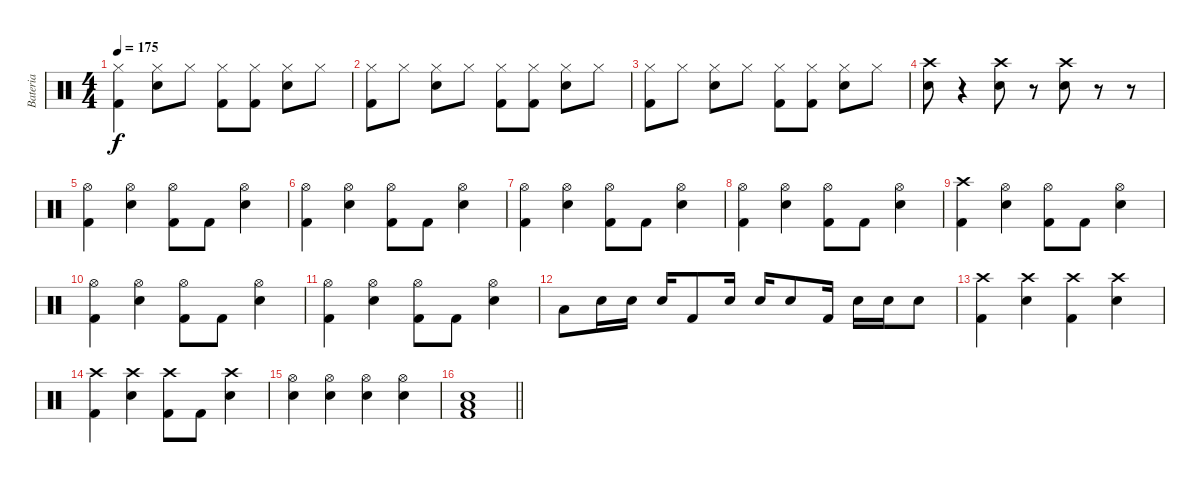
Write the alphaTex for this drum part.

\track ("Bateria" "Bateria") {instrument percussion}
\staff {score}
\articulation defaults
\ts (4 4)
\tempo 175
\clef neutral
\ks c
("Hi-Hat (closed)" "Kick (hit) 2").4{dy f} ("Hi-Hat (closed)" "Electric Snare (hit)").8 "Hi-Hat (closed)".8 ("Hi-Hat (closed)" "Kick (hit) 2").8 ("Hi-Hat (closed)" "Kick (hit) 2").8 ("Hi-Hat (closed)" "Electric Snare (hit)").8 "Hi-Hat (closed)".8 |
("Hi-Hat (closed)" "Kick (hit) 2").8 "Hi-Hat (closed)".8 ("Hi-Hat (closed)" "Electric Snare (hit)").8 "Hi-Hat (closed)".8 ("Hi-Hat (closed)" "Kick (hit) 2").8 ("Hi-Hat (closed)" "Kick (hit) 2").8 ("Hi-Hat (closed)" "Electric Snare (hit)").8 "Hi-Hat (closed)".8 |
("Hi-Hat (closed)" "Kick (hit) 2").8 "Hi-Hat (closed)".8 ("Hi-Hat (closed)" "Electric Snare (hit)").8 "Hi-Hat (closed)".8 ("Hi-Hat (closed)" "Kick (hit) 2").8 ("Hi-Hat (closed)" "Kick (hit) 2").8 ("Hi-Hat (closed)" "Electric Snare (hit)").8 "Hi-Hat (closed)".8 |
("Crash high (hit)" "Electric Snare (hit)").8 r.4 ("Crash high (hit)" "Electric Snare (hit)").8 r.8 ("Crash high (hit)" "Electric Snare (hit)").8 r.8 r.8 |
("Hi-Hat (open)" "Kick (hit) 2").4 ("Hi-Hat (open)" "Electric Snare (hit)").4 ("Hi-Hat (open)" "Kick (hit) 2").8 "Kick (hit) 2".8 ("Hi-Hat (open)" "Electric Snare (hit)").4 |
("Hi-Hat (open)" "Kick (hit) 2").4 ("Hi-Hat (open)" "Electric Snare (hit)").4 ("Hi-Hat (open)" "Kick (hit) 2").8 "Kick (hit) 2".8 ("Hi-Hat (open)" "Electric Snare (hit)").4 |
("Hi-Hat (open)" "Kick (hit) 2").4 ("Hi-Hat (open)" "Electric Snare (hit)").4 ("Hi-Hat (open)" "Kick (hit) 2").8 "Kick (hit) 2".8 ("Hi-Hat (open)" "Electric Snare (hit)").4 |
("Hi-Hat (open)" "Kick (hit) 2").4 ("Hi-Hat (open)" "Electric Snare (hit)").4 ("Hi-Hat (open)" "Kick (hit) 2").8 "Kick (hit) 2".8 ("Hi-Hat (open)" "Electric Snare (hit)").4 |
("Crash high (hit)" "Kick (hit) 2").4 ("Hi-Hat (open)" "Electric Snare (hit)").4 ("Hi-Hat (open)" "Kick (hit) 2").8 "Kick (hit) 2".8 ("Hi-Hat (open)" "Electric Snare (hit)").4 |
("Hi-Hat (open)" "Kick (hit) 2").4 ("Hi-Hat (open)" "Electric Snare (hit)").4 ("Hi-Hat (open)" "Kick (hit) 2").8 "Kick (hit) 2".8 ("Hi-Hat (open)" "Electric Snare (hit)").4 |
("Hi-Hat (open)" "Kick (hit) 2").4 ("Hi-Hat (open)" "Electric Snare (hit)").4 ("Hi-Hat (open)" "Kick (hit) 2").8 "Kick (hit) 2".8 ("Hi-Hat (open)" "Electric Snare (hit)").4 |
"Low Tom (hit)".8 "Electric Snare (hit)".16 "Electric Snare (hit)".16 "Electric Snare (hit)".16 "Kick (hit) 2".8 "Electric Snare (hit)".16 "Electric Snare (hit)".16 "Electric Snare (hit)".8 "Kick (hit) 2".16 "Electric Snare (hit)".16 "Electric Snare (hit)".16 "Electric Snare (hit)".8 |
("Crash high (hit)" "Kick (hit) 2").4 ("Crash high (hit)" "Electric Snare (hit)").4 ("Crash high (hit)" "Kick (hit) 2").4 ("Crash high (hit)" "Electric Snare (hit)").4 |
("Crash high (hit)" "Kick (hit) 2").4 ("Crash high (hit)" "Electric Snare (hit)").4 ("Crash high (hit)" "Kick (hit) 2").8 "Kick (hit) 2".8 ("Crash high (hit)" "Electric Snare (hit)").4 |
("Hi-Hat (open)" "Electric Snare (hit)").4 ("Hi-Hat (open)" "Electric Snare (hit)").4 ("Hi-Hat (open)" "Electric Snare (hit)").4 ("Hi-Hat (open)" "Electric Snare (hit)").4 |
\barLineRight lightlight
("Low Floor Tom (hit)" "Kick (hit) 2" "Electric Snare (hit)").1
